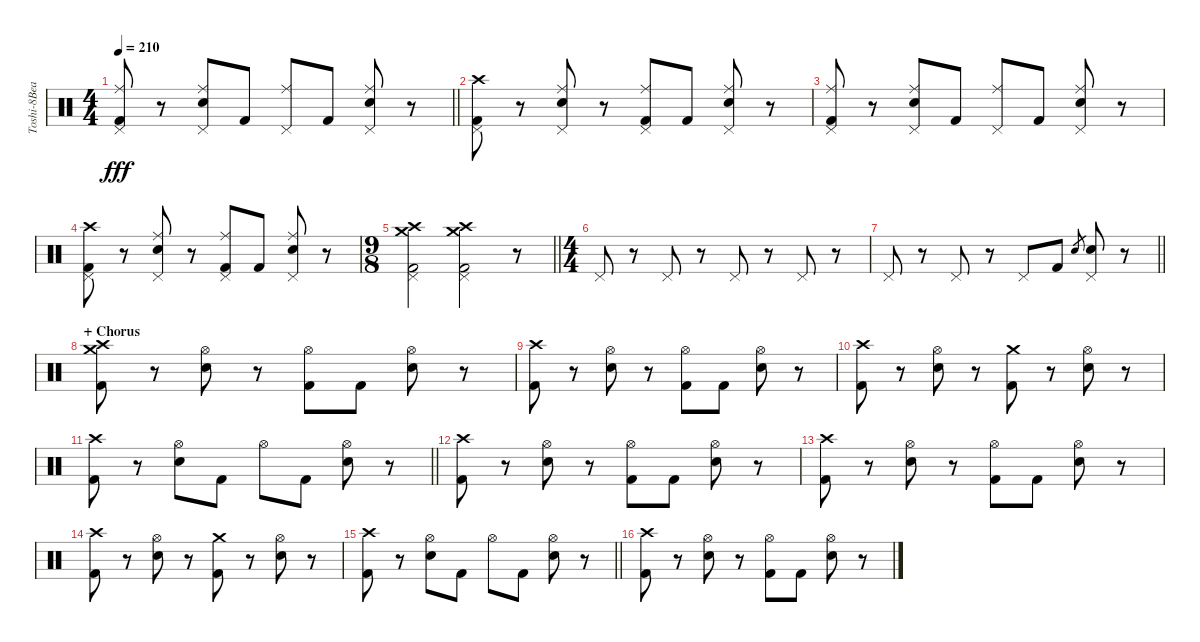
\track ("Toshi-8Beat" "Toshi-8Bea") {instrument percussion}
\staff {score}
\articulation defaults
\ts (4 4)
\tempo 210
\clef neutral
\barLineRight lightlight
\ks c
("Pedal Hi-Hat (hit)" "Kick (hit) 2" "Ride (middle)").8{dy fff} r.8 ("Pedal Hi-Hat (hit)" "Snare (hit) 2" "Ride (middle)").8 "Kick (hit) 2".8 ("Pedal Hi-Hat (hit)" "Ride (middle)").8 "Kick (hit) 2".8 ("Pedal Hi-Hat (hit)" "Snare (hit) 2" "Ride (middle)").8 r.8 |
("Pedal Hi-Hat (hit)" "Kick (hit) 2" "Crash high (hit)").8 r.8 ("Pedal Hi-Hat (hit)" "Snare (hit) 2" "Ride (middle)").8 r.8 ("Pedal Hi-Hat (hit)" "Kick (hit) 2" "Ride (middle)").8 "Kick (hit) 2".8 ("Pedal Hi-Hat (hit)" "Snare (hit) 2" "Ride (middle)").8 r.8 |
("Pedal Hi-Hat (hit)" "Kick (hit) 2" "Ride (middle)").8 r.8 ("Pedal Hi-Hat (hit)" "Snare (hit) 2" "Ride (middle)").8 "Kick (hit) 2".8 ("Pedal Hi-Hat (hit)" "Ride (middle)").8 "Kick (hit) 2".8 ("Pedal Hi-Hat (hit)" "Snare (hit) 2" "Ride (middle)").8 r.8 |
("Pedal Hi-Hat (hit)" "Kick (hit) 2" "Crash high (hit)").8 r.8 ("Pedal Hi-Hat (hit)" "Snare (hit) 2" "Ride (middle)").8 r.8 ("Pedal Hi-Hat (hit)" "Kick (hit) 2" "Ride (middle)").8 "Kick (hit) 2".8 ("Pedal Hi-Hat (hit)" "Snare (hit) 2" "Ride (middle)").8 r.8 |
\ts (9 8)
\barLineRight lightlight
("Pedal Hi-Hat (hit)" "Kick (hit) 2" "Crash medium (hit)" "Crash high (hit)").2 ("Pedal Hi-Hat (hit)" "Kick (hit) 2" "Crash medium (hit)" "Crash high (hit)").2 r.8 |
\ts (4 4)
"Pedal Hi-Hat (hit)".8 r.8 "Pedal Hi-Hat (hit)".8 r.8 "Pedal Hi-Hat (hit)".8 r.8 "Pedal Hi-Hat (hit)".8 r.8 |
\barLineRight lightlight "Pedal Hi-Hat (hit)".8
r.8 "Pedal Hi-Hat (hit)".8 r.8 "Pedal Hi-Hat (hit)".8 "Kick (hit) 2".8 "Snare (hit) 2".8{gr} ("Pedal Hi-Hat (hit)" "Snare (hit) 2").8 r.8 |
\section ("" "+ Chorus")
("Kick (hit) 2" "Crash high (hit)" "Crash medium (hit)").8 r.8 ("Hi-Hat (open)" "Snare (hit) 2").8 r.8 ("Hi-Hat (open)" "Kick (hit) 2").8 "Kick (hit) 2".8 ("Hi-Hat (open)" "Snare (hit) 2").8 r.8 |
("Kick (hit) 2" "Crash high (hit)").8 r.8 ("Hi-Hat (open)" "Snare (hit) 2").8 r.8 ("Hi-Hat (open)" "Kick (hit) 2").8 "Kick (hit) 2".8 ("Hi-Hat (open)" "Snare (hit) 2").8 r.8 |
("Kick (hit) 2" "Crash high (hit)").8 r.8 ("Hi-Hat (open)" "Snare (hit) 2").8 r.8 ("Kick (hit) 2" "Crash medium (hit)").8 r.8 ("Hi-Hat (open)" "Snare (hit) 2").8 r.8 |
\barLineRight lightlight
("Kick (hit) 2" "Crash high (hit)").8 r.8 ("Hi-Hat (open)" "Snare (hit) 2").8 "Kick (hit) 2".8 "Hi-Hat (open)".8 "Kick (hit) 2".8 ("Hi-Hat (open)" "Snare (hit) 2").8 r.8 |
("Kick (hit) 2" "Crash high (hit)").8 r.8 ("Hi-Hat (open)" "Snare (hit) 2").8 r.8 ("Hi-Hat (open)" "Kick (hit) 2").8 "Kick (hit) 2".8 ("Hi-Hat (open)" "Snare (hit) 2").8 r.8 |
("Kick (hit) 2" "Crash high (hit)").8 r.8 ("Hi-Hat (open)" "Snare (hit) 2").8 r.8 ("Hi-Hat (open)" "Kick (hit) 2").8 "Kick (hit) 2".8 ("Hi-Hat (open)" "Snare (hit) 2").8 r.8 |
("Kick (hit) 2" "Crash high (hit)").8 r.8 ("Hi-Hat (open)" "Snare (hit) 2").8 r.8 ("Kick (hit) 2" "Crash medium (hit)").8 r.8 ("Hi-Hat (open)" "Snare (hit) 2").8 r.8 |
\barLineRight lightlight
("Kick (hit) 2" "Crash high (hit)").8 r.8 ("Hi-Hat (open)" "Snare (hit) 2").8 "Kick (hit) 2".8 "Hi-Hat (open)".8 "Kick (hit) 2".8 ("Hi-Hat (open)" "Snare (hit) 2").8 r.8 |
("Kick (hit) 2" "Crash high (hit)").8 r.8 ("Hi-Hat (open)" "Snare (hit) 2").8 r.8 ("Hi-Hat (open)" "Kick (hit) 2").8 "Kick (hit) 2".8 ("Hi-Hat (open)" "Snare (hit) 2").8 r.8
